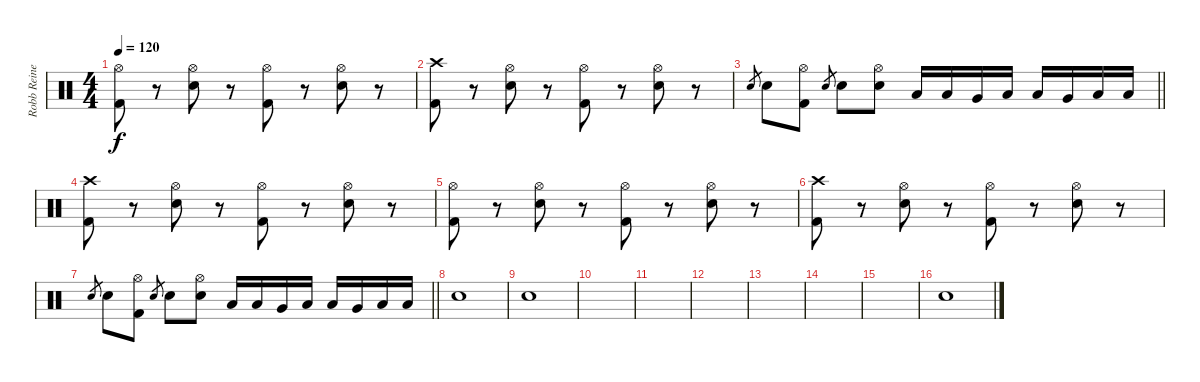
\track ("Robb Reiner" "Robb Reine") {instrument percussion}
\staff {score}
\articulation defaults
\ts (4 4)
\tempo 120
\clef neutral
\ks c
("Kick (hit) 2" "Hi-Hat (open)").8{dy f} r.8 ("Snare (hit) 2" "Hi-Hat (open)").8 r.8 ("Kick (hit) 2" "Hi-Hat (open)").8 r.8 ("Snare (hit) 2" "Hi-Hat (open)").8 r.8 |
("Kick (hit) 2" "Crash high (hit)").8 r.8 ("Snare (hit) 2" "Hi-Hat (open)").8 r.8 ("Kick (hit) 2" "Hi-Hat (open)").8 r.8 ("Snare (hit) 2" "Hi-Hat (open)").8 r.8 |
\barLineRight lightlight "Snare (hit) 2".8{gr} "Snare (hit) 2".8
("Kick (hit) 2" "Hi-Hat (open)").8 "Snare (hit) 2".8{gr} "Snare (hit) 2".8 ("Snare (hit) 2" "Hi-Hat (open)").8 "Low Tom (hit)".16 "Low Tom (hit)".16 "Very Low Tom (hit)".16 "Low Floor Tom (hit)".16 "Low Tom (hit)".16 "Very Low Tom (hit)".16 "Low Floor Tom (hit)".16 "Low Tom (hit)".16 |
("Kick (hit) 2" "Crash high (hit)").8{volume 0} r.8 ("Snare (hit) 2" "Hi-Hat (open)").8 r.8 ("Kick (hit) 2" "Hi-Hat (open)").8 r.8 ("Snare (hit) 2" "Hi-Hat (open)").8 r.8 |
("Kick (hit) 2" "Hi-Hat (open)").8 r.8 ("Snare (hit) 2" "Hi-Hat (open)").8 r.8 ("Kick (hit) 2" "Hi-Hat (open)").8 r.8 ("Snare (hit) 2" "Hi-Hat (open)").8 r.8 |
("Kick (hit) 2" "Crash high (hit)").8 r.8 ("Snare (hit) 2" "Hi-Hat (open)").8 r.8 ("Kick (hit) 2" "Hi-Hat (open)").8 r.8 ("Snare (hit) 2" "Hi-Hat (open)").8 r.8 |
\barLineRight lightlight "Snare (hit) 2".8{gr} "Snare (hit) 2".8
("Kick (hit) 2" "Hi-Hat (open)").8 "Snare (hit) 2".8{gr} "Snare (hit) 2".8 ("Snare (hit) 2" "Hi-Hat (open)").8 "Low Tom (hit)".16 "Low Tom (hit)".16 "Very Low Tom (hit)".16 "Low Floor Tom (hit)".16 "Low Tom (hit)".16 "Very Low Tom (hit)".16 "Low Floor Tom (hit)".16 "Low Tom (hit)".16 |
"Snare (hit)".1 |
"Snare (hit)".1 |
|
|
|
|
|
|
"Snare (hit)".1
